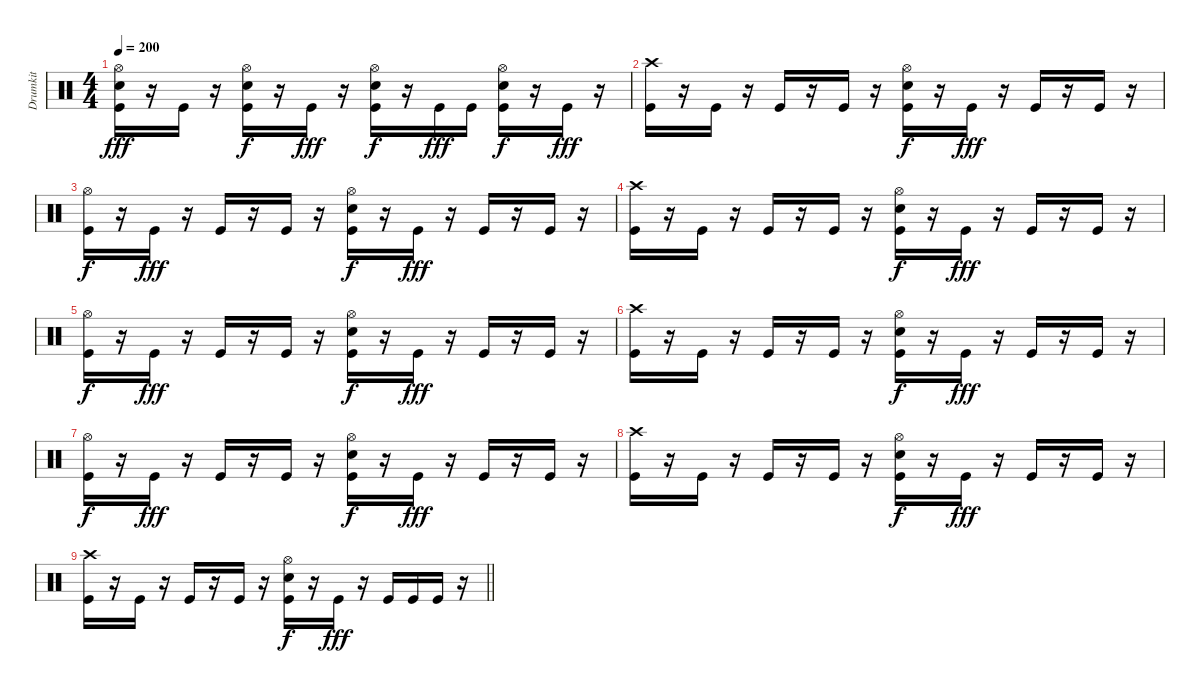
\track ("Drumkit" "Drumkit") {instrument percussion}
\staff {score}
\articulation defaults
\ts (4 4)
\tempo 200
\clef neutral
\ks c
("Hi-Hat (open)" "Snare (hit) 2" "Kick (hit)").16{dy fff} r.16 "Kick (hit)".16 r.16 ("Hi-Hat (open)" "Snare (hit) 2" "Kick (hit)").16{dy f} r.16 "Kick (hit)".16{dy fff} r.16 ("Hi-Hat (open)" "Snare (hit) 2" "Kick (hit)").16{dy f} r.16 "Kick (hit)".16{dy fff} "Kick (hit)".16 ("Hi-Hat (open)" "Snare (hit) 2" "Kick (hit)").16{dy f} r.16 "Kick (hit)".16{dy fff} r.16 |
("Crash high (hit)" "Kick (hit)").16 r.16 "Kick (hit)".16 r.16 "Kick (hit)".16 r.16 "Kick (hit)".16 r.16 ("Hi-Hat (open)" "Snare (hit) 2" "Kick (hit)").16{dy f} r.16 "Kick (hit)".16{dy fff} r.16 "Kick (hit)".16 r.16 "Kick (hit)".16 r.16 |
("Hi-Hat (open)" "Kick (hit)").16{dy f} r.16 "Kick (hit)".16{dy fff} r.16 "Kick (hit)".16 r.16 "Kick (hit)".16 r.16 ("Hi-Hat (open)" "Snare (hit) 2" "Kick (hit)").16{dy f} r.16 "Kick (hit)".16{dy fff} r.16 "Kick (hit)".16 r.16 "Kick (hit)".16 r.16 |
("Crash high (hit)" "Kick (hit)").16 r.16 "Kick (hit)".16 r.16 "Kick (hit)".16 r.16 "Kick (hit)".16 r.16 ("Hi-Hat (open)" "Snare (hit) 2" "Kick (hit)").16{dy f} r.16 "Kick (hit)".16{dy fff} r.16 "Kick (hit)".16 r.16 "Kick (hit)".16 r.16 |
("Hi-Hat (open)" "Kick (hit)").16{dy f} r.16 "Kick (hit)".16{dy fff} r.16 "Kick (hit)".16 r.16 "Kick (hit)".16 r.16 ("Hi-Hat (open)" "Snare (hit) 2" "Kick (hit)").16{dy f} r.16 "Kick (hit)".16{dy fff} r.16 "Kick (hit)".16 r.16 "Kick (hit)".16 r.16 |
("Crash high (hit)" "Kick (hit)").16 r.16 "Kick (hit)".16 r.16 "Kick (hit)".16 r.16 "Kick (hit)".16 r.16 ("Hi-Hat (open)" "Snare (hit) 2" "Kick (hit)").16{dy f} r.16 "Kick (hit)".16{dy fff} r.16 "Kick (hit)".16 r.16 "Kick (hit)".16 r.16 |
("Hi-Hat (open)" "Kick (hit)").16{dy f} r.16 "Kick (hit)".16{dy fff} r.16 "Kick (hit)".16 r.16 "Kick (hit)".16 r.16 ("Hi-Hat (open)" "Snare (hit) 2" "Kick (hit)").16{dy f} r.16 "Kick (hit)".16{dy fff} r.16 "Kick (hit)".16 r.16 "Kick (hit)".16 r.16 |
("Crash high (hit)" "Kick (hit)").16 r.16 "Kick (hit)".16 r.16 "Kick (hit)".16 r.16 "Kick (hit)".16 r.16 ("Hi-Hat (open)" "Snare (hit) 2" "Kick (hit)").16{dy f} r.16 "Kick (hit)".16{dy fff} r.16 "Kick (hit)".16 r.16 "Kick (hit)".16 r.16 |
\barLineRight lightlight
("Crash high (hit)" "Kick (hit)").16 r.16 "Kick (hit)".16 r.16 "Kick (hit)".16 r.16 "Kick (hit)".16 r.16 ("Hi-Hat (open)" "Snare (hit) 2" "Kick (hit)").16{dy f} r.16 "Kick (hit)".16{dy fff} r.16 "Kick (hit)".16 "Kick (hit)".16 "Kick (hit)".16 r.16
